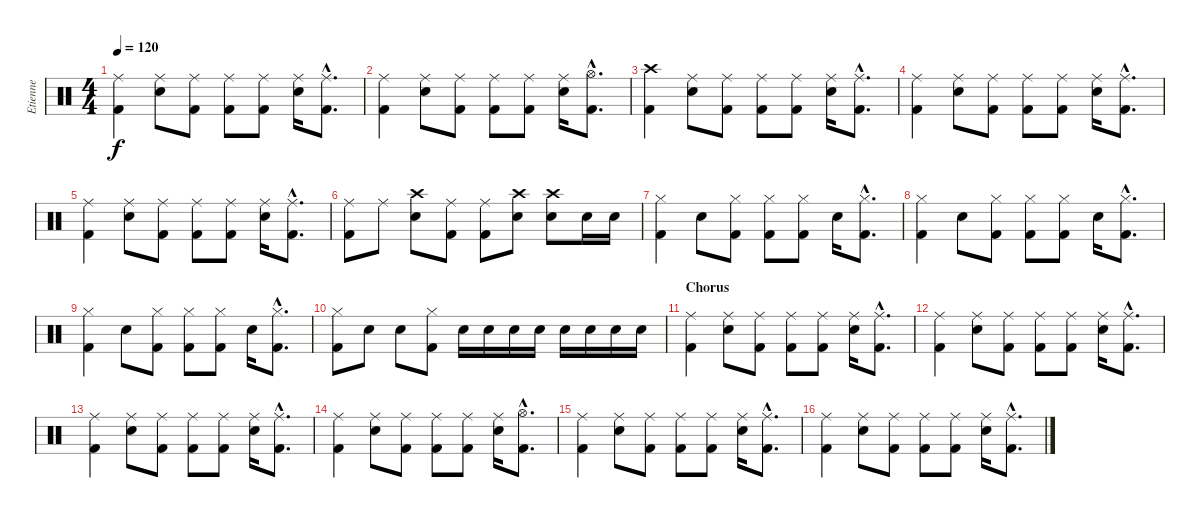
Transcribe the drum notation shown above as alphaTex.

\track ("Etienne" "Etienne") {instrument percussion}
\staff {score}
\articulation defaults
\ts (4 4)
\tempo 120
\clef neutral
\ks c
("Ride (middle)" "Kick (hit) 2").4{dy f} ("Ride (middle)" "Snare (hit) 2").8 ("Ride (middle)" "Kick (hit) 2").8 ("Ride (middle)" "Kick (hit) 2").8 ("Ride (middle)" "Kick (hit) 2").8 ("Ride (middle)" "Snare (hit) 2").16 ("Ride (middle)"{hac} "Kick (hit) 2"{hac}).8{d} |
("Ride (middle)" "Kick (hit) 2").4 ("Ride (middle)" "Snare (hit) 2").8 ("Ride (middle)" "Kick (hit) 2").8 ("Ride (middle)" "Kick (hit) 2").8 ("Ride (middle)" "Kick (hit) 2").8 ("Ride (middle)" "Snare (hit) 2").16 ("Hi-Hat (open)"{hac} "Kick (hit) 2"{hac}).8{d} |
("Crash high (hit)" "Kick (hit) 2").4 ("Ride (middle)" "Snare (hit) 2").8 ("Ride (middle)" "Kick (hit) 2").8 ("Ride (middle)" "Kick (hit) 2").8 ("Ride (middle)" "Kick (hit) 2").8 ("Ride (middle)" "Snare (hit) 2").16 ("Ride (middle)"{hac} "Kick (hit) 2"{hac}).8{d} |
("Ride (middle)" "Kick (hit) 2").4 ("Ride (middle)" "Snare (hit) 2").8 ("Ride (middle)" "Kick (hit) 2").8 ("Ride (middle)" "Kick (hit) 2").8 ("Ride (middle)" "Kick (hit) 2").8 ("Ride (middle)" "Snare (hit) 2").16 ("Ride (middle)"{hac} "Kick (hit) 2"{hac}).8{d} |
("Ride (middle)" "Kick (hit) 2").4 ("Ride (middle)" "Snare (hit) 2").8 ("Ride (middle)" "Kick (hit) 2").8 ("Ride (middle)" "Kick (hit) 2").8 ("Ride (middle)" "Kick (hit) 2").8 ("Ride (middle)" "Snare (hit) 2").16 ("Ride (middle)"{hac} "Kick (hit) 2"{hac}).8{d} |
("Ride (middle)" "Kick (hit) 2").8 "Ride (middle)".8 ("Crash high (hit)" "Snare (hit) 2").8 ("Ride (middle)" "Kick (hit) 2").8 ("Ride (middle)" "Kick (hit) 2").8 ("Crash high (hit)" "Snare (hit) 2").8 ("Crash high (hit)" "Snare (hit) 2").8 "Snare (hit) 2".16 "Snare (hit) 2".16 |
("Hi-Hat (closed)" "Kick (hit) 2").4 "Snare (hit) 2".8 ("Hi-Hat (closed)" "Kick (hit) 2").8 ("Hi-Hat (closed)" "Kick (hit) 2").8 ("Hi-Hat (closed)" "Kick (hit) 2").8 "Snare (hit) 2".16 ("Hi-Hat (closed)"{hac} "Kick (hit) 2"{hac}).8{d} |
("Hi-Hat (closed)" "Kick (hit) 2").4 "Snare (hit) 2".8 ("Hi-Hat (closed)" "Kick (hit) 2").8 ("Hi-Hat (closed)" "Kick (hit) 2").8 ("Hi-Hat (closed)" "Kick (hit) 2").8 "Snare (hit) 2".16 ("Hi-Hat (closed)"{hac} "Kick (hit) 2"{hac}).8{d} |
("Hi-Hat (closed)" "Kick (hit) 2").4 "Snare (hit) 2".8 ("Hi-Hat (closed)" "Kick (hit) 2").8 ("Hi-Hat (closed)" "Kick (hit) 2").8 ("Hi-Hat (closed)" "Kick (hit) 2").8 "Snare (hit) 2".16 ("Hi-Hat (closed)"{hac} "Kick (hit) 2"{hac}).8{d} |
("Hi-Hat (closed)" "Kick (hit) 2").8 "Snare (hit) 2".8 "Snare (hit) 2".8 ("Hi-Hat (closed)" "Kick (hit) 2").8 "Snare (hit) 2".16 "Snare (hit) 2".16 "Snare (hit) 2".16 "Snare (hit) 2".16 "Snare (hit) 2".16 "Snare (hit) 2".16 "Snare (hit) 2".16 "Snare (hit) 2".16 |
\section ("" "Chorus")
("Ride (middle)" "Kick (hit) 2").4 ("Ride (middle)" "Snare (hit) 2").8 ("Ride (middle)" "Kick (hit) 2").8 ("Ride (middle)" "Kick (hit) 2").8 ("Ride (middle)" "Kick (hit) 2").8 ("Ride (middle)" "Snare (hit) 2").16 ("Ride (middle)"{hac} "Kick (hit) 2"{hac}).8{d} |
("Ride (middle)" "Kick (hit) 2").4 ("Ride (middle)" "Snare (hit) 2").8 ("Ride (middle)" "Kick (hit) 2").8 ("Ride (middle)" "Kick (hit) 2").8 ("Ride (middle)" "Kick (hit) 2").8 ("Ride (middle)" "Snare (hit) 2").16 ("Ride (middle)"{hac} "Kick (hit) 2"{hac}).8{d} |
("Ride (middle)" "Kick (hit) 2").4 ("Ride (middle)" "Snare (hit) 2").8 ("Ride (middle)" "Kick (hit) 2").8 ("Ride (middle)" "Kick (hit) 2").8 ("Ride (middle)" "Kick (hit) 2").8 ("Ride (middle)" "Snare (hit) 2").16 ("Ride (middle)"{hac} "Kick (hit) 2"{hac}).8{d} |
("Ride (middle)" "Kick (hit) 2").4 ("Ride (middle)" "Snare (hit) 2").8 ("Ride (middle)" "Kick (hit) 2").8 ("Ride (middle)" "Kick (hit) 2").8 ("Ride (middle)" "Kick (hit) 2").8 ("Ride (middle)" "Snare (hit) 2").16 ("Hi-Hat (open)"{hac} "Kick (hit) 2"{hac}).8{d} |
("Ride (middle)" "Kick (hit) 2").4 ("Ride (middle)" "Snare (hit) 2").8 ("Ride (middle)" "Kick (hit) 2").8 ("Ride (middle)" "Kick (hit) 2").8 ("Ride (middle)" "Kick (hit) 2").8 ("Ride (middle)" "Snare (hit) 2").16 ("Ride (middle)"{hac} "Kick (hit) 2"{hac}).8{d} |
("Ride (middle)" "Kick (hit) 2").4 ("Ride (middle)" "Snare (hit) 2").8 ("Ride (middle)" "Kick (hit) 2").8 ("Ride (middle)" "Kick (hit) 2").8 ("Ride (middle)" "Kick (hit) 2").8 ("Ride (middle)" "Snare (hit) 2").16 ("Ride (middle)"{hac} "Kick (hit) 2"{hac}).8{d}
